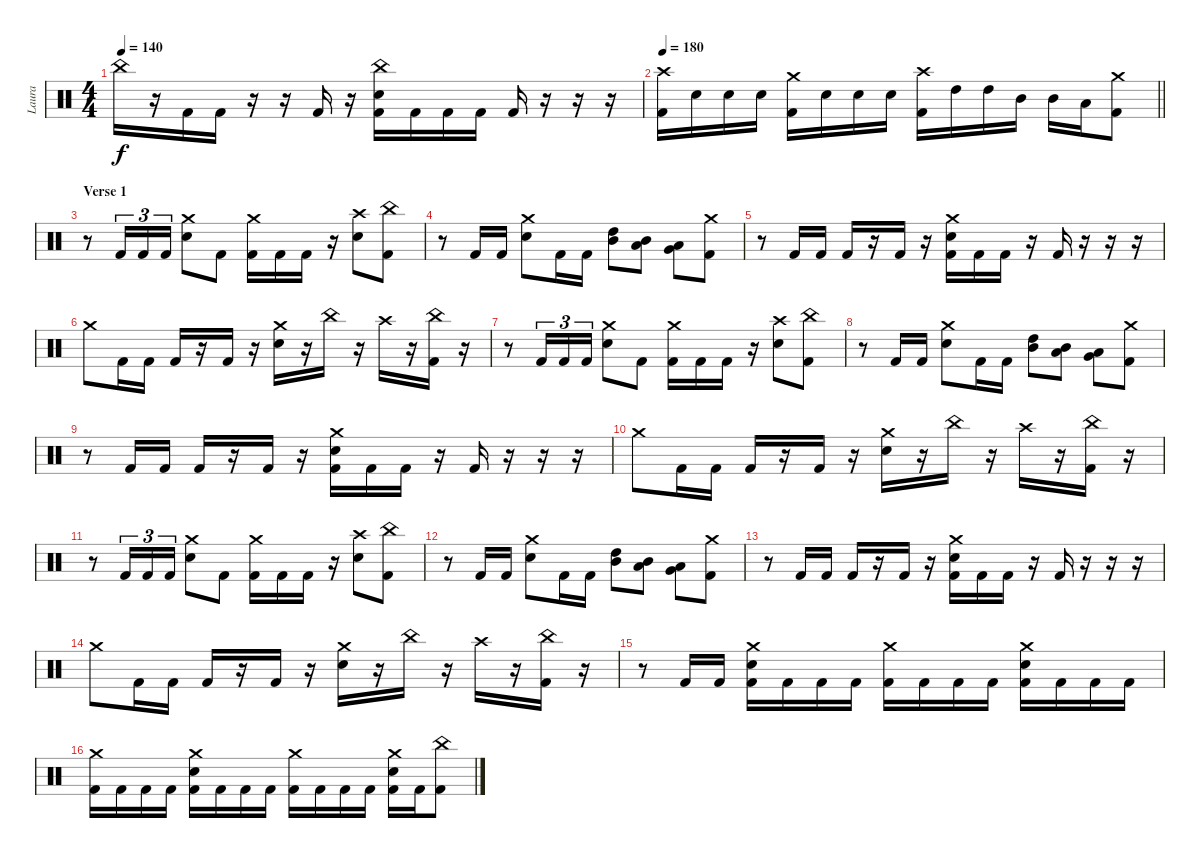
\track ("Laura" "Laura") {instrument percussion}
\staff {score}
\articulation defaults
\ts (4 4)
\tempo 140
\clef neutral
\ks c "China (hit)".16{dy f}
r.16 "Kick (hit) 2".16 "Kick (hit) 2".16 r.16 r.16 "Kick (hit) 2".16 r.16 ("China (hit)" "Electric Snare (hit)" "Kick (hit) 2").16 "Kick (hit) 2".16 "Kick (hit) 2".16 "Kick (hit) 2".16 "Kick (hit) 2".16 r.16 r.16 r.16 |
\tempo 180
\barLineRight lightlight
("Crash high (hit)" "Kick (hit) 2").16 "Electric Snare (hit)".16 "Electric Snare (hit)".16 "Electric Snare (hit)".16 ("Crash medium (hit)" "Kick (hit) 2").16 "Electric Snare (hit)".16 "Electric Snare (hit)".16 "Electric Snare (hit)".16 ("Crash high (hit)" "Kick (hit) 2").16 "High Tom (hit)".16 "High Tom (hit)".16 "Mid Tom (hit)".16 "Mid Tom (hit)".16 "Low Tom (hit)".16 ("Crash medium (hit)" "Kick (hit) 2").8 |
\section ("" "Verse 1")
r.8 "Kick (hit) 2".16{tu (3 2)} "Kick (hit) 2".16{tu (3 2)} "Kick (hit) 2".16{tu (3 2)} ("Crash medium (hit)" "Electric Snare (hit)").8 "Kick (hit) 2".8 ("Crash medium (hit)" "Kick (hit) 2").16 "Kick (hit) 2".16 "Kick (hit) 2".16 r.16 ("Crash high (hit)" "Electric Snare (hit)").8 ("China (hit)" "Kick (hit) 2").8 |
r.8 "Kick (hit) 2".16 "Kick (hit) 2".16 ("Crash medium (hit)" "Electric Snare (hit)").8 "Kick (hit) 2".16 "Kick (hit) 2".16 ("High Tom (hit)" "Mid Tom (hit)").8 ("Mid Tom (hit)" "Low Tom (hit)").8 ("Low Tom (hit)" "Very Low Tom (hit)").8 ("Crash medium (hit)" "Kick (hit) 2").8 |
r.8 "Kick (hit) 2".16 "Kick (hit) 2".16 "Kick (hit) 2".16 r.16 "Kick (hit) 2".16 r.16 ("Crash medium (hit)" "Electric Snare (hit)" "Kick (hit) 2").16 "Kick (hit) 2".16 "Kick (hit) 2".16 r.16 "Kick (hit) 2".16 r.16 r.16 r.16 |
"Crash medium (hit)".8 "Kick (hit) 2".16 "Kick (hit) 2".16 "Kick (hit) 2".16 r.16 "Kick (hit) 2".16 r.16 ("Crash medium (hit)" "Electric Snare (hit)").16 r.16 "China (hit)".16 r.16 "Crash high (hit)".16 r.16 ("China (hit)" "Kick (hit) 2").16 r.16 |
r.8 "Kick (hit) 2".16{tu (3 2)} "Kick (hit) 2".16{tu (3 2)} "Kick (hit) 2".16{tu (3 2)} ("Crash medium (hit)" "Electric Snare (hit)").8 "Kick (hit) 2".8 ("Crash medium (hit)" "Kick (hit) 2").16 "Kick (hit) 2".16 "Kick (hit) 2".16 r.16 ("Crash high (hit)" "Electric Snare (hit)").8 ("China (hit)" "Kick (hit) 2").8 |
r.8 "Kick (hit) 2".16 "Kick (hit) 2".16 ("Crash medium (hit)" "Electric Snare (hit)").8 "Kick (hit) 2".16 "Kick (hit) 2".16 ("High Tom (hit)" "Mid Tom (hit)").8 ("Mid Tom (hit)" "Low Tom (hit)").8 ("Low Tom (hit)" "Very Low Tom (hit)").8 ("Crash medium (hit)" "Kick (hit) 2").8 |
r.8 "Kick (hit) 2".16 "Kick (hit) 2".16 "Kick (hit) 2".16 r.16 "Kick (hit) 2".16 r.16 ("Crash medium (hit)" "Electric Snare (hit)" "Kick (hit) 2").16 "Kick (hit) 2".16 "Kick (hit) 2".16 r.16 "Kick (hit) 2".16 r.16 r.16 r.16 |
"Crash medium (hit)".8 "Kick (hit) 2".16 "Kick (hit) 2".16 "Kick (hit) 2".16 r.16 "Kick (hit) 2".16 r.16 ("Crash medium (hit)" "Electric Snare (hit)").16 r.16 "China (hit)".16 r.16 "Crash high (hit)".16 r.16 ("China (hit)" "Kick (hit) 2").16 r.16 |
r.8 "Kick (hit) 2".16{tu (3 2)} "Kick (hit) 2".16{tu (3 2)} "Kick (hit) 2".16{tu (3 2)} ("Crash medium (hit)" "Electric Snare (hit)").8 "Kick (hit) 2".8 ("Crash medium (hit)" "Kick (hit) 2").16 "Kick (hit) 2".16 "Kick (hit) 2".16 r.16 ("Crash high (hit)" "Electric Snare (hit)").8 ("China (hit)" "Kick (hit) 2").8 |
r.8 "Kick (hit) 2".16 "Kick (hit) 2".16 ("Crash medium (hit)" "Electric Snare (hit)").8 "Kick (hit) 2".16 "Kick (hit) 2".16 ("High Tom (hit)" "Mid Tom (hit)").8 ("Mid Tom (hit)" "Low Tom (hit)").8 ("Low Tom (hit)" "Very Low Tom (hit)").8 ("Crash medium (hit)" "Kick (hit) 2").8 |
r.8 "Kick (hit) 2".16 "Kick (hit) 2".16 "Kick (hit) 2".16 r.16 "Kick (hit) 2".16 r.16 ("Crash medium (hit)" "Electric Snare (hit)" "Kick (hit) 2").16 "Kick (hit) 2".16 "Kick (hit) 2".16 r.16 "Kick (hit) 2".16 r.16 r.16 r.16 |
"Crash medium (hit)".8 "Kick (hit) 2".16 "Kick (hit) 2".16 "Kick (hit) 2".16 r.16 "Kick (hit) 2".16 r.16 ("Crash medium (hit)" "Electric Snare (hit)").16 r.16 "China (hit)".16 r.16 "Crash high (hit)".16 r.16 ("China (hit)" "Kick (hit) 2").16 r.16 |
r.8 "Kick (hit) 2".16 "Kick (hit) 2".16 ("Crash medium (hit)" "Electric Snare (hit)" "Kick (hit) 2").16 "Kick (hit) 2".16 "Kick (hit) 2".16 "Kick (hit) 2".16 ("Crash medium (hit)" "Kick (hit) 2").16 "Kick (hit) 2".16 "Kick (hit) 2".16 "Kick (hit) 2".16 ("Crash medium (hit)" "Electric Snare (hit)" "Kick (hit) 2").16 "Kick (hit) 2".16 "Kick (hit) 2".16 "Kick (hit) 2".16 |
("Crash medium (hit)" "Kick (hit) 2").16 "Kick (hit) 2".16 "Kick (hit) 2".16 "Kick (hit) 2".16 ("Crash medium (hit)" "Electric Snare (hit)" "Kick (hit) 2").16 "Kick (hit) 2".16 "Kick (hit) 2".16 "Kick (hit) 2".16 ("Crash medium (hit)" "Kick (hit) 2").16 "Kick (hit) 2".16 "Kick (hit) 2".16 "Kick (hit) 2".16 ("Crash medium (hit)" "Electric Snare (hit)" "Kick (hit) 2").16 "Kick (hit) 2".16 ("China (hit)" "Kick (hit) 2").8
